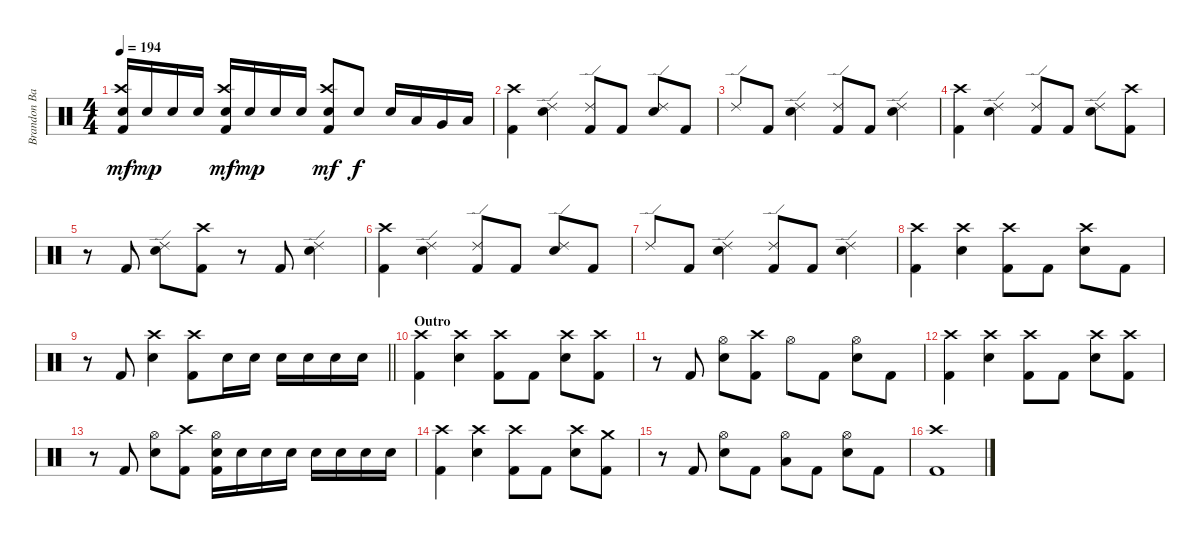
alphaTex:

\track ("Brandon Barnes - Drums" "Brandon Ba") {instrument percussion}
\staff {score}
\articulation defaults
\ts (4 4)
\tempo 194
\clef neutral
\ks c
("Snare (hit) 2" "Crash high (hit)" "Kick (hit) 2").16{dy mf} "Snare (hit) 2".16{dy mp} "Snare (hit) 2".16 "Snare (hit) 2".16 ("Snare (hit) 2" "Crash high (hit)" "Kick (hit) 2").16{dy mf} "Snare (hit) 2".16{dy mp} "Snare (hit) 2".16 "Snare (hit) 2".16 ("Crash high (hit)" "Kick (hit) 2" "Snare (hit) 2").8{dy mf} "Snare (hit) 2".8{dy f} "Snare (hit) 2".16 "Low Tom (hit)".16 "Very Low Tom (hit)".16 "Low Floor Tom (hit)".16 |
("Crash high (hit)" "Kick (hit) 2").4 ("Snare (hit) 2" "Ride (edge) 2").4 ("Kick (hit) 2" "Ride (edge) 2").8 "Kick (hit) 2".8 ("Snare (hit) 2" "Ride (edge) 2").8 "Kick (hit) 2".8 |
"Ride (edge) 2".8 "Kick (hit) 2".8 ("Snare (hit) 2" "Ride (edge) 2").4 ("Kick (hit) 2" "Ride (edge) 2").8 "Kick (hit) 2".8 ("Snare (hit) 2" "Ride (edge) 2").4 |
("Crash high (hit)" "Kick (hit) 2").4 ("Snare (hit) 2" "Ride (edge) 2").4 ("Kick (hit) 2" "Ride (edge) 2").8 "Kick (hit) 2".8 ("Snare (hit) 2" "Ride (edge) 2").8 ("Kick (hit) 2" "Crash high (hit)").8 |
r.8 "Kick (hit) 2".8 ("Snare (hit) 2" "Ride (edge) 2").8 ("Kick (hit) 2" "Crash high (hit)").8 r.8 "Kick (hit) 2".8 ("Snare (hit) 2" "Ride (edge) 2").4 |
("Crash high (hit)" "Kick (hit) 2").4 ("Snare (hit) 2" "Ride (edge) 2").4 ("Kick (hit) 2" "Ride (edge) 2").8 "Kick (hit) 2".8 ("Snare (hit) 2" "Ride (edge) 2").8 "Kick (hit) 2".8 |
"Ride (edge) 2".8 "Kick (hit) 2".8 ("Snare (hit) 2" "Ride (edge) 2").4 ("Kick (hit) 2" "Ride (edge) 2").8 "Kick (hit) 2".8 ("Snare (hit) 2" "Ride (edge) 2").4 |
("Crash high (hit)" "Kick (hit) 2").4 ("Snare (hit) 2" "Crash high (hit)").4 ("Kick (hit) 2" "Crash high (hit)").8 "Kick (hit) 2".8 ("Snare (hit) 2" "Crash high (hit)").8 "Kick (hit) 2".8 |
\barLineRight lightlight
r.8 "Kick (hit) 2".8 ("Snare (hit) 2" "Crash high (hit)").4 ("Kick (hit) 2" "Crash high (hit)").8 "Snare (hit) 2".16 "Snare (hit) 2".16 "Snare (hit) 2".16 "Snare (hit) 2".16 "Snare (hit) 2".16 "Snare (hit) 2".16 |
\section ("" "Outro")
("Kick (hit) 2" "Crash high (hit)").4 ("Snare (hit) 2" "Crash high (hit)").4 ("Kick (hit) 2" "Crash high (hit)").8 "Kick (hit) 2".8 ("Snare (hit) 2" "Crash high (hit)").8 ("Kick (hit) 2" "Crash high (hit)").8 |
r.8 "Kick (hit) 2".8 ("Snare (hit) 2" "Hi-Hat (open)").8 ("Kick (hit) 2" "Crash high (hit)").8 "Hi-Hat (open)".8 "Kick (hit) 2".8 ("Snare (hit) 2" "Hi-Hat (open)").8 "Kick (hit) 2".8 |
("Kick (hit) 2" "Crash high (hit)").4 ("Snare (hit) 2" "Crash high (hit)").4 ("Kick (hit) 2" "Crash high (hit)").8 "Kick (hit) 2".8 ("Snare (hit) 2" "Crash high (hit)").8 ("Kick (hit) 2" "Crash high (hit)").8 |
r.8 "Kick (hit) 2".8 ("Snare (hit) 2" "Hi-Hat (open)").8 ("Kick (hit) 2" "Crash high (hit)").8 ("Snare (hit) 2" "Kick (hit) 2" "Hi-Hat (open)").16 "Snare (hit) 2".16 "Snare (hit) 2".16 "Snare (hit) 2".16 "Snare (hit) 2".16 "Snare (hit) 2".16 "Snare (hit) 2".16 "Snare (hit) 2".16 |
("Kick (hit) 2" "Crash high (hit)").4 ("Snare (hit) 2" "Crash high (hit)").4 ("Kick (hit) 2" "Crash high (hit)").8 "Kick (hit) 2".8 ("Snare (hit) 2" "Crash high (hit)").8 ("Kick (hit) 2" "Crash medium (hit)").8 |
r.8 "Kick (hit) 2".8 ("Snare (hit) 2" "Hi-Hat (open)").8 "Kick (hit) 2".8 ("Low Tom (hit)" "Hi-Hat (open)").8 "Kick (hit) 2".8 ("Snare (hit) 2" "Hi-Hat (open)").8 "Kick (hit) 2".8 |
("Crash high (hit)" "Kick (hit) 2").1
